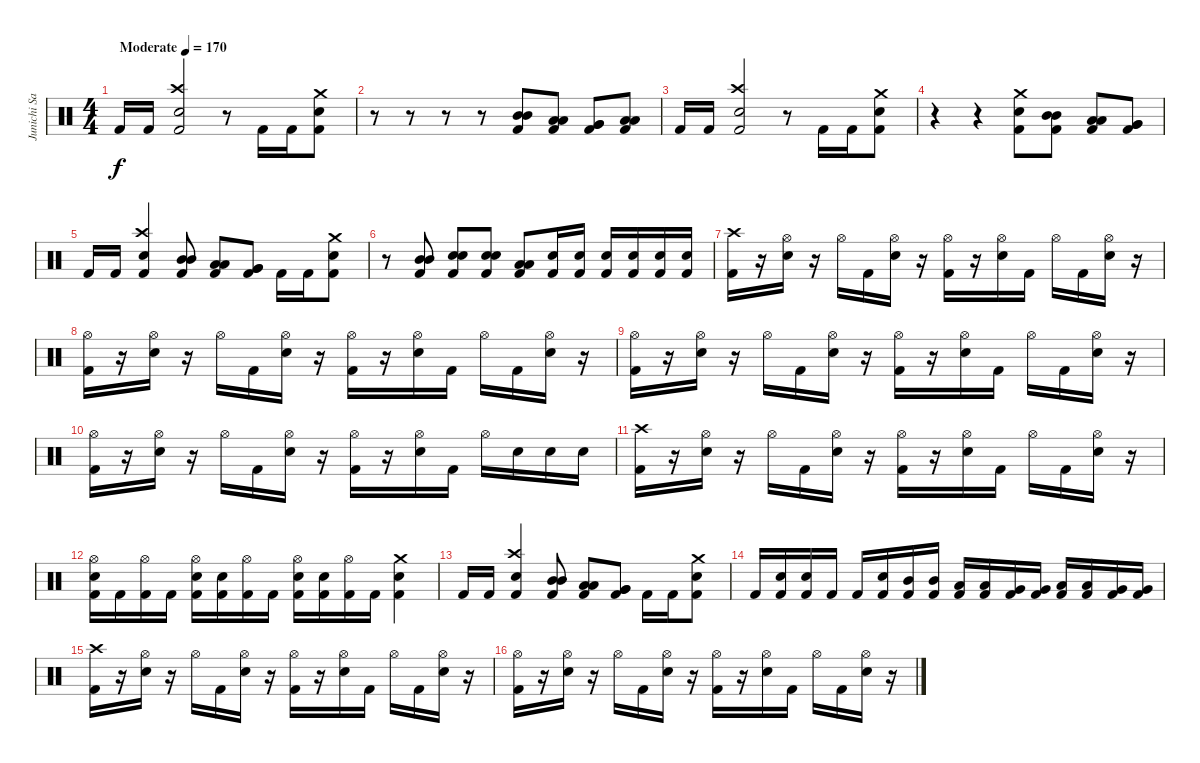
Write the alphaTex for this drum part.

\track ("Junichi Sato" "Junichi Sa") {instrument percussion}
\staff {score}
\articulation defaults
\ts (4 4)
\tempo (170 "Moderate")
\clef neutral
\ks c "Kick (hit) 2".16{dy f} "Kick (hit) 2".16
("Crash high (hit)" "Electric Snare (hit)" "Kick (hit) 2").2 r.8 "Kick (hit) 2".16 "Kick (hit) 2".16 ("Crash medium (hit)" "Electric Snare (hit)" "Kick (hit) 2").8 |
r.8 r.8 r.8 r.8 ("Mid Tom (hit)" "Mid Tom (hit)" "Kick (hit) 2").8 ("Low Tom (hit)" "Low Tom (hit)" "Kick (hit) 2").8 ("Very Low Tom (hit)" "Very Low Tom (hit)" "Kick (hit) 2").8 ("Low Floor Tom (hit)" "Low Floor Tom (hit)" "Kick (hit) 2").8 |
"Kick (hit) 2".16 "Kick (hit) 2".16 ("Crash high (hit)" "Electric Snare (hit)" "Kick (hit) 2").2 r.8 "Kick (hit) 2".16 "Kick (hit) 2".16 ("Crash medium (hit)" "Electric Snare (hit)" "Kick (hit) 2").8 |
r.4 r.4 ("Crash medium (hit)" "Electric Snare (hit)" "Kick (hit) 2").8 ("Mid Tom (hit)" "Mid Tom (hit)" "Kick (hit) 2").8 ("Low Tom (hit)" "Low Tom (hit)" "Kick (hit) 2").8 ("Very Low Tom (hit)" "Very Low Tom (hit)" "Kick (hit) 2").8 |
"Kick (hit) 2".16 "Kick (hit) 2".16 ("Crash high (hit)" "Electric Snare (hit)" "Kick (hit) 2").4 ("Mid Tom (hit)" "Mid Tom (hit)" "Kick (hit) 2").8 ("Low Tom (hit)" "Low Tom (hit)" "Kick (hit) 2").8 ("Very Low Tom (hit)" "Very Low Tom (hit)" "Kick (hit) 2").8 "Kick (hit) 2".16 "Kick (hit) 2".16 ("Crash medium (hit)" "Electric Snare (hit)" "Kick (hit) 2").8 |
r.8 ("Mid Tom (hit)" "Mid Tom (hit)" "Kick (hit) 2").8 ("Electric Snare (hit)" "Electric Snare (hit)" "Kick (hit) 2").8 ("Electric Snare (hit)" "Electric Snare (hit)" "Kick (hit) 2").8 ("Low Tom (hit)" "Low Tom (hit)" "Kick (hit) 2").8 ("Electric Snare (hit)" "Kick (hit) 2").16 ("Electric Snare (hit)" "Kick (hit) 2").16 ("Electric Snare (hit)" "Kick (hit) 2").16 ("Electric Snare (hit)" "Kick (hit) 2").16 ("Electric Snare (hit)" "Kick (hit) 2").16 ("Electric Snare (hit)" "Kick (hit) 2").16 |
("Crash high (hit)" "Kick (hit) 2").16 r.16 ("Hi-Hat (open)" "Electric Snare (hit)").16 r.16 "Hi-Hat (open)".16 "Kick (hit) 2".16 ("Hi-Hat (open)" "Electric Snare (hit)").16 r.16 ("Hi-Hat (open)" "Kick (hit) 2").16 r.16 ("Hi-Hat (open)" "Electric Snare (hit)").16 "Kick (hit) 2".16 "Hi-Hat (open)".16 "Kick (hit) 2".16 ("Hi-Hat (open)" "Electric Snare (hit)").16 r.16 |
("Hi-Hat (open)" "Kick (hit) 2").16 r.16 ("Hi-Hat (open)" "Electric Snare (hit)").16 r.16 "Hi-Hat (open)".16 "Kick (hit) 2".16 ("Hi-Hat (open)" "Electric Snare (hit)").16 r.16 ("Hi-Hat (open)" "Kick (hit) 2").16 r.16 ("Hi-Hat (open)" "Electric Snare (hit)").16 "Kick (hit) 2".16 "Hi-Hat (open)".16 "Kick (hit) 2".16 ("Hi-Hat (open)" "Electric Snare (hit)").16 r.16 |
("Hi-Hat (open)" "Kick (hit) 2").16 r.16 ("Hi-Hat (open)" "Electric Snare (hit)").16 r.16 "Hi-Hat (open)".16 "Kick (hit) 2".16 ("Hi-Hat (open)" "Electric Snare (hit)").16 r.16 ("Hi-Hat (open)" "Kick (hit) 2").16 r.16 ("Hi-Hat (open)" "Electric Snare (hit)").16 "Kick (hit) 2".16 "Hi-Hat (open)".16 "Kick (hit) 2".16 ("Hi-Hat (open)" "Electric Snare (hit)").16 r.16 |
("Hi-Hat (open)" "Kick (hit) 2").16 r.16 ("Hi-Hat (open)" "Electric Snare (hit)").16 r.16 "Hi-Hat (open)".16 "Kick (hit) 2".16 ("Hi-Hat (open)" "Electric Snare (hit)").16 r.16 ("Hi-Hat (open)" "Kick (hit) 2").16 r.16 ("Hi-Hat (open)" "Electric Snare (hit)").16 "Kick (hit) 2".16 "Hi-Hat (open)".16 "Electric Snare (hit)".16 "Electric Snare (hit)".16 "Electric Snare (hit)".16 |
("Crash high (hit)" "Kick (hit) 2").16 r.16 ("Hi-Hat (open)" "Electric Snare (hit)").16 r.16 "Hi-Hat (open)".16 "Kick (hit) 2".16 ("Hi-Hat (open)" "Electric Snare (hit)").16 r.16 ("Hi-Hat (open)" "Kick (hit) 2").16 r.16 ("Hi-Hat (open)" "Electric Snare (hit)").16 "Kick (hit) 2".16 "Hi-Hat (open)".16 "Kick (hit) 2".16 ("Hi-Hat (open)" "Electric Snare (hit)").16 r.16 |
("Hi-Hat (open)" "Electric Snare (hit)" "Kick (hit) 2").16 "Kick (hit) 2".16 ("Hi-Hat (open)" "Kick (hit) 2").16 "Kick (hit) 2".16 ("Hi-Hat (open)" "Electric Snare (hit)" "Kick (hit) 2").16 ("Electric Snare (hit)" "Kick (hit) 2").16 ("Hi-Hat (open)" "Kick (hit) 2").16 "Kick (hit) 2".16 ("Hi-Hat (open)" "Electric Snare (hit)" "Kick (hit) 2").16 ("Electric Snare (hit)" "Kick (hit) 2").16 ("Hi-Hat (open)" "Kick (hit) 2").16 "Kick (hit) 2".16 ("Crash medium (hit)" "Electric Snare (hit)" "Kick (hit) 2").4 |
"Kick (hit) 2".16 "Kick (hit) 2".16 ("Crash high (hit)" "Electric Snare (hit)" "Kick (hit) 2").4 ("Mid Tom (hit)" "Mid Tom (hit)" "Kick (hit) 2").8 ("Low Tom (hit)" "Low Tom (hit)" "Kick (hit) 2").8 ("Very Low Tom (hit)" "Very Low Tom (hit)" "Kick (hit) 2").8 "Kick (hit) 2".16 "Kick (hit) 2".16 ("Crash medium (hit)" "Electric Snare (hit)" "Kick (hit) 2").8 |
"Kick (hit) 2".16 ("Electric Snare (hit)" "Kick (hit) 2").16 ("Electric Snare (hit)" "Kick (hit) 2").16 "Kick (hit) 2".16 "Kick (hit) 2".16 ("Electric Snare (hit)" "Kick (hit) 2").16 ("Mid Tom (hit)" "Kick (hit) 2").16 ("Mid Tom (hit)" "Kick (hit) 2").16 ("Low Tom (hit)" "Kick (hit) 2").16 ("Low Tom (hit)" "Kick (hit) 2").16 ("Very Low Tom (hit)" "Kick (hit) 2").16 ("Very Low Tom (hit)" "Kick (hit) 2").16 ("Low Tom (hit)" "Kick (hit) 2").16 ("Low Tom (hit)" "Kick (hit) 2").16 ("Very Low Tom (hit)" "Kick (hit) 2").16 ("Very Low Tom (hit)" "Kick (hit) 2").16 |
("Crash high (hit)" "Kick (hit) 2").16 r.16 ("Hi-Hat (open)" "Electric Snare (hit)").16 r.16 "Hi-Hat (open)".16 "Kick (hit) 2".16 ("Hi-Hat (open)" "Electric Snare (hit)").16 r.16 ("Hi-Hat (open)" "Kick (hit) 2").16 r.16 ("Hi-Hat (open)" "Electric Snare (hit)").16 "Kick (hit) 2".16 "Hi-Hat (open)".16 "Kick (hit) 2".16 ("Hi-Hat (open)" "Electric Snare (hit)").16 r.16 |
("Hi-Hat (open)" "Kick (hit) 2").16 r.16 ("Hi-Hat (open)" "Electric Snare (hit)").16 r.16 "Hi-Hat (open)".16 "Kick (hit) 2".16 ("Hi-Hat (open)" "Electric Snare (hit)").16 r.16 ("Hi-Hat (open)" "Kick (hit) 2").16 r.16 ("Hi-Hat (open)" "Electric Snare (hit)").16 "Kick (hit) 2".16 "Hi-Hat (open)".16 "Kick (hit) 2".16 ("Hi-Hat (open)" "Electric Snare (hit)").16 r.16
